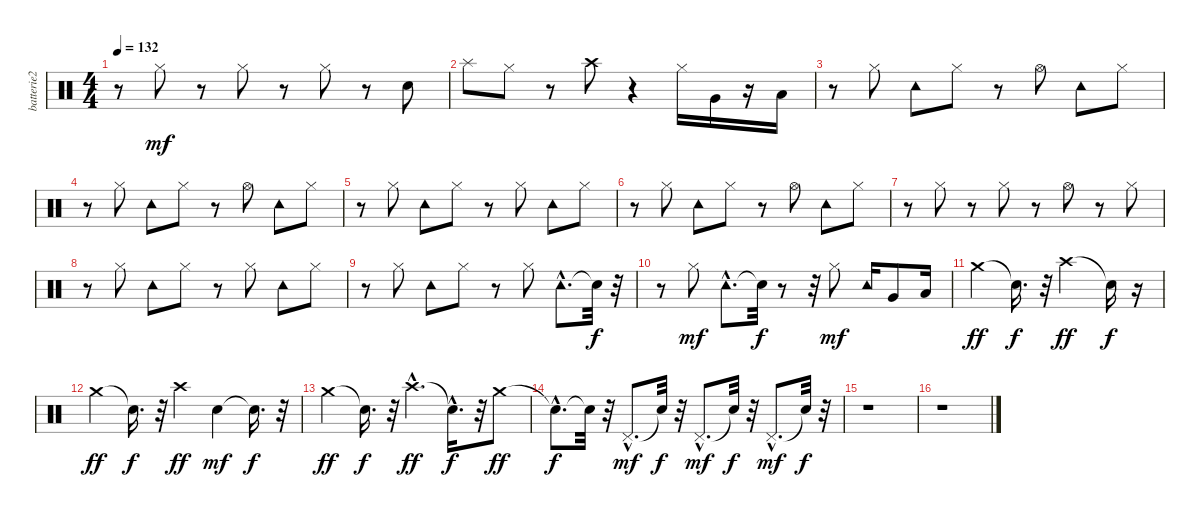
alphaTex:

\track ("batterie2" "batterie2") {instrument percussion}
\staff {score}
\articulation defaults
\ts (4 4)
\tempo 132
\clef neutral
\ks c
r.8{dy mf} "Hi-Hat (closed)".8 r.8 "Hi-Hat (closed)".8 r.8 "Hi-Hat (closed)".8 r.8 "Electric Snare (hit)".8 |
"Splash (hit)".8 "Hi-Hat (closed)".8 r.8 "Crash high (hit)".8 r.4 "Hi-Hat (closed)".16 "Very Low Tom (hit)".16 r.16 "Low Floor Tom (hit)".16 |
r.8 "Hi-Hat (closed)".8 "Tambourine (hit)".8 "Hi-Hat (closed)".8 r.8 "Hi-Hat (open)".8 "Tambourine (hit)".8 "Hi-Hat (closed)".8 |
r.8 "Hi-Hat (closed)".8 "Tambourine (hit)".8 "Hi-Hat (closed)".8 r.8 "Hi-Hat (open)".8 "Tambourine (hit)".8 "Hi-Hat (closed)".8 |
r.8 "Hi-Hat (closed)".8 "Tambourine (hit)".8 "Hi-Hat (closed)".8 r.8 "Hi-Hat (closed)".8 "Tambourine (hit)".8 "Hi-Hat (closed)".8 |
r.8 "Hi-Hat (closed)".8 "Tambourine (hit)".8 "Hi-Hat (closed)".8 r.8 "Hi-Hat (open)".8 "Tambourine (hit)".8 "Hi-Hat (closed)".8 |
r.8 "Hi-Hat (closed)".8 r.8 "Hi-Hat (closed)".8 r.8 "Hi-Hat (open)".8 r.8 "Hi-Hat (closed)".8 |
r.8 "Hi-Hat (closed)".8 "Tambourine (hit)".8 "Hi-Hat (closed)".8 r.8 "Hi-Hat (closed)".8 "Tambourine (hit)".8 "Hi-Hat (closed)".8 |
r.8 "Hi-Hat (closed)".8 "Tambourine (hit)".8 "Hi-Hat (closed)".8 r.8 "Hi-Hat (closed)".8 "Tambourine (hit)"{hac}.8{d} "Snare (hit)"{t}.32{dy f} r.32 |
r.8 "Hi-Hat (closed)".8{dy mf} "Tambourine (hit)"{hac}.8{d} "Snare (hit)"{t}.32{dy f} r.8 r.32 "Hi-Hat (closed)".8{dy mf} "Tambourine (hit)".16 "Very Low Tom (hit)".8 "Low Floor Tom (hit)".16 |
"Crash medium (hit)".4{dy ff} "Snare (hit)"{t}.16{d dy f} r.32 "Crash high (hit)".2{dy ff} "Snare (hit)"{t}.16{dy f} r.16 |
"Crash medium (hit)".4{dy ff} "Snare (hit)"{t}.16{d dy f} r.32 "Crash high (hit)".4{dy ff} "Electric Snare (hit)".4{dy mf} "Snare (hit)"{t}.16{d dy f} r.32 |
"Crash medium (hit)".4{dy ff} "Snare (hit)"{t}.16{d dy f} r.32 "Crash high (hit)"{hac}.4{d dy ff} "Snare (hit)"{hac t}.16{d dy f} r.32 "Crash medium (hit)".8{dy ff} |
"Snare (hit)"{hac t}.8{d dy f} "Snare (hit)"{t}.32 r.32 "Pedal Hi-Hat (hit)"{hac}.8{d dy mf} "Snare (hit)"{t}.32{dy f} r.32 "Pedal Hi-Hat (hit)"{hac}.8{d dy mf} "Snare (hit)"{t}.32{dy f} r.32 "Pedal Hi-Hat (hit)"{hac}.8{d dy mf} "Snare (hit)"{t}.32{dy f} r.32 |
r.1 |
r.1
